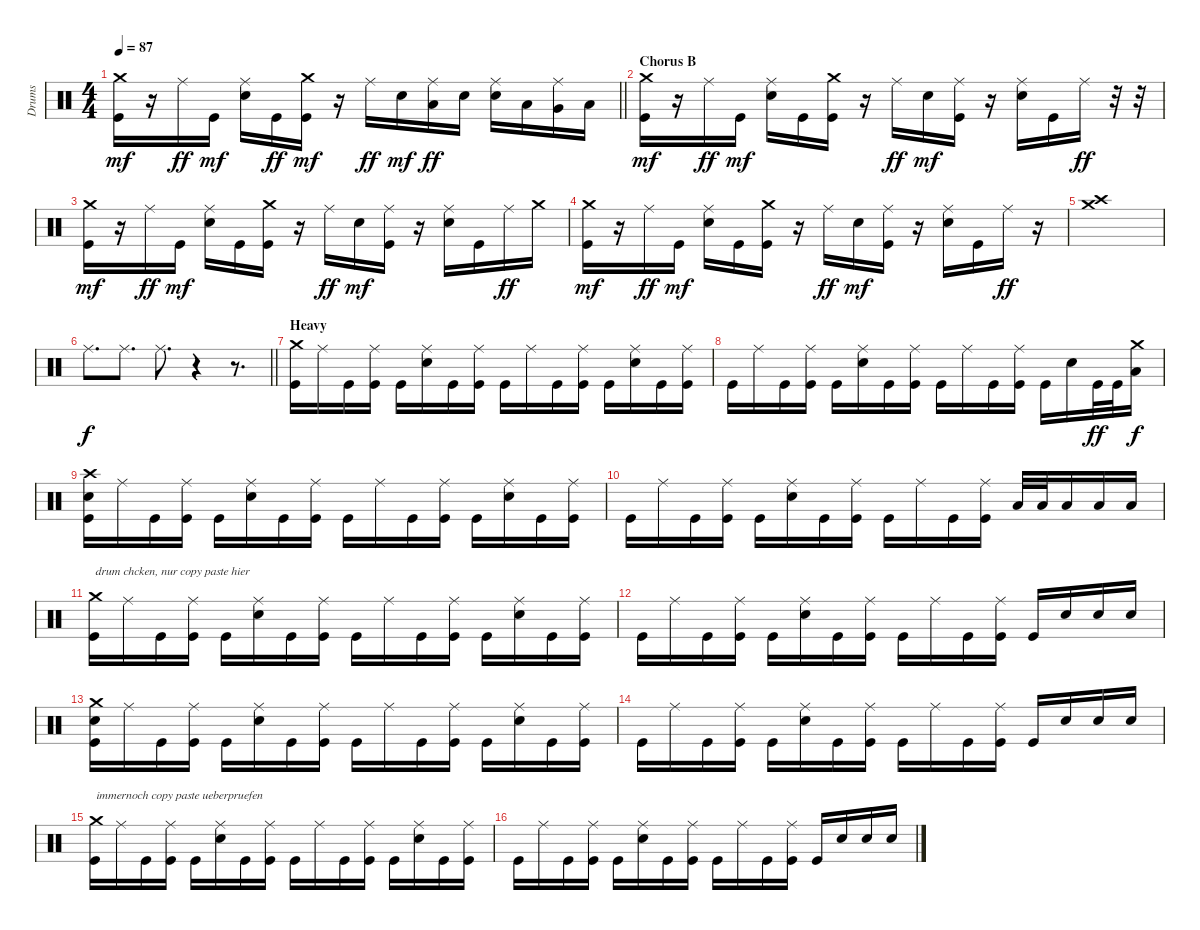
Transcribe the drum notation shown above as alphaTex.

\track ("Drums" "Drums") {instrument percussion}
\staff {score}
\articulation defaults
\ts (4 4)
\tempo 87
\clef neutral
\barLineRight lightlight
\ks c
("Crash medium (hit)" "Kick (hit)").16{dy mf} r.16 "Ride (middle)".16{dy ff} "Kick (hit)".16{dy mf} ("Ride (middle)" "Electric Snare (hit)").16 "Kick (hit)".16{dy ff} ("Crash medium (hit)" "Kick (hit)").16{dy mf} r.16 "Ride (middle)".16{dy ff} "Electric Snare (hit)".16{dy mf} ("Ride (middle)" "Low Tom (hit)").16{dy ff} "Electric Snare (hit)".16 ("Ride (middle)" "Electric Snare (hit)").16 "Low Tom (hit)".16 ("Ride (middle)" "Very Low Tom (hit)").16 "Low Floor Tom (hit)".16 |
\section ("" "Chorus B")
("Crash medium (hit)" "Kick (hit)").16{dy mf} r.16 "Ride (middle)".16{dy ff} "Kick (hit)".16{dy mf} ("Ride (middle)" "Electric Snare (hit)").16 "Kick (hit)".16 ("Crash medium (hit)" "Kick (hit)").16 r.16 "Ride (middle)".16{dy ff} "Electric Snare (hit)".16{dy mf} ("Ride (middle)" "Kick (hit)").16 r.16 ("Ride (middle)" "Electric Snare (hit)").16 "Kick (hit)".16 "Ride (middle)".16{dy ff} r.32 r.32 |
("Crash medium (hit)" "Kick (hit)").16{dy mf} r.16 "Ride (middle)".16{dy ff} "Kick (hit)".16{dy mf} ("Ride (middle)" "Electric Snare (hit)").16 "Kick (hit)".16 ("Crash medium (hit)" "Kick (hit)").16 r.16 "Ride (middle)".16{dy ff} "Electric Snare (hit)".16{dy mf} ("Ride (middle)" "Kick (hit)").16 r.16 ("Ride (middle)" "Electric Snare (hit)").16 "Kick (hit)".16 "Ride (middle)".16{dy ff} "Crash medium (hit)".16 |
("Crash medium (hit)" "Kick (hit)").16{dy mf} r.16 "Ride (middle)".16{dy ff} "Kick (hit)".16{dy mf} ("Ride (middle)" "Electric Snare (hit)").16 "Kick (hit)".16 ("Crash medium (hit)" "Kick (hit)").16 r.16 "Ride (middle)".16{dy ff} "Electric Snare (hit)".16{dy mf} ("Ride (middle)" "Kick (hit)").16 r.16 ("Ride (middle)" "Electric Snare (hit)").16 "Kick (hit)".16 "Ride (middle)".16{dy ff} r.16 |
("Crash high (hit)" "Crash medium (hit)").1 |
\barLineRight lightlight "Ride (middle)".8{d dy f} "Ride (middle)".8{d} "Ride (middle)".8{d}
r.4 r.8{d} |
\section ("" "Heavy")
("Crash medium (hit)" "Kick (hit)").16 "Ride (middle)".16 "Kick (hit)".16 ("Ride (middle)" "Kick (hit)").16 "Kick (hit)".16 ("Ride (middle)" "Electric Snare (hit)").16 "Kick (hit)".16 ("Ride (middle)" "Kick (hit)").16 "Kick (hit)".16 "Ride (middle)".16 "Kick (hit)".16 ("Ride (middle)" "Kick (hit)").16 "Kick (hit)".16 ("Ride (middle)" "Electric Snare (hit)").16 "Kick (hit)".16 ("Ride (middle)" "Kick (hit)").16 |
"Kick (hit)".16 "Ride (middle)".16 "Kick (hit)".16 ("Ride (middle)" "Kick (hit)").16 "Kick (hit)".16 ("Ride (middle)" "Electric Snare (hit)").16 "Kick (hit)".16 ("Ride (middle)" "Kick (hit)").16 "Kick (hit)".16 "Ride (middle)".16 "Kick (hit)".16 ("Ride (middle)" "Kick (hit)").16 "Kick (hit)".16 "Electric Snare (hit)".16 "Kick (hit)".32{dy ff} "Kick (hit)".32 ("Low Tom (hit)" "Crash medium (hit)").16{dy f} |
("Crash high (hit)" "Electric Snare (hit)" "Kick (hit)").16 "Ride (middle)".16 "Kick (hit)".16 ("Ride (middle)" "Kick (hit)").16 "Kick (hit)".16 ("Ride (middle)" "Electric Snare (hit)").16 "Kick (hit)".16 ("Ride (middle)" "Kick (hit)").16 "Kick (hit)".16 "Ride (middle)".16 "Kick (hit)".16 ("Ride (middle)" "Kick (hit)").16 "Kick (hit)".16 ("Ride (middle)" "Electric Snare (hit)").16 "Kick (hit)".16 ("Ride (middle)" "Kick (hit)").16 |
"Kick (hit)".16 "Ride (middle)".16 "Kick (hit)".16 ("Ride (middle)" "Kick (hit)").16 "Kick (hit)".16 ("Ride (middle)" "Electric Snare (hit)").16 "Kick (hit)".16 ("Ride (middle)" "Kick (hit)").16 "Kick (hit)".16 "Ride (middle)".16 "Kick (hit)".16 ("Ride (middle)" "Kick (hit)").16 "Low Tom (hit)".32 "Low Tom (hit)".32 "Low Tom (hit)".16 "Low Tom (hit)".16 "Low Tom (hit)".16 |
("Crash medium (hit)" "Kick (hit)").16{txt "drum chcken, nur copy paste hier"} "Ride (middle)".16 "Kick (hit)".16 ("Ride (middle)" "Kick (hit)").16 "Kick (hit)".16 ("Ride (middle)" "Electric Snare (hit)").16 "Kick (hit)".16 ("Ride (middle)" "Kick (hit)").16 "Kick (hit)".16 "Ride (middle)".16 "Kick (hit)".16 ("Ride (middle)" "Kick (hit)").16 "Kick (hit)".16 ("Ride (middle)" "Electric Snare (hit)").16 "Kick (hit)".16 ("Ride (middle)" "Kick (hit)").16 |
"Kick (hit)".16 "Ride (middle)".16 "Kick (hit)".16 ("Ride (middle)" "Kick (hit)").16 "Kick (hit)".16 ("Ride (middle)" "Electric Snare (hit)").16 "Kick (hit)".16 ("Ride (middle)" "Kick (hit)").16 "Kick (hit)".16 "Ride (middle)".16 "Kick (hit)".16 ("Ride (middle)" "Kick (hit)").16 "Kick (hit)".16 "Electric Snare (hit)".16 "Electric Snare (hit)".16 "Electric Snare (hit)".16 |
("Crash medium (hit)" "Electric Snare (hit)" "Kick (hit)").16 "Ride (middle)".16 "Kick (hit)".16 ("Ride (middle)" "Kick (hit)").16 "Kick (hit)".16 ("Ride (middle)" "Electric Snare (hit)").16 "Kick (hit)".16 ("Ride (middle)" "Kick (hit)").16 "Kick (hit)".16 "Ride (middle)".16 "Kick (hit)".16 ("Ride (middle)" "Kick (hit)").16 "Kick (hit)".16 ("Ride (middle)" "Electric Snare (hit)").16 "Kick (hit)".16 ("Ride (middle)" "Kick (hit)").16 |
"Kick (hit)".16 "Ride (middle)".16 "Kick (hit)".16 ("Ride (middle)" "Kick (hit)").16 "Kick (hit)".16 ("Ride (middle)" "Electric Snare (hit)").16 "Kick (hit)".16 ("Ride (middle)" "Kick (hit)").16 "Kick (hit)".16 "Ride (middle)".16 "Kick (hit)".16 ("Ride (middle)" "Kick (hit)").16 "Kick (hit)".16 "Electric Snare (hit)".16 "Electric Snare (hit)".16 "Electric Snare (hit)".16 |
("Crash medium (hit)" "Kick (hit)").16{txt "immernoch copy paste ueberpruefen"} "Ride (middle)".16 "Kick (hit)".16 ("Ride (middle)" "Kick (hit)").16 "Kick (hit)".16 ("Ride (middle)" "Electric Snare (hit)").16 "Kick (hit)".16 ("Ride (middle)" "Kick (hit)").16 "Kick (hit)".16 "Ride (middle)".16 "Kick (hit)".16 ("Ride (middle)" "Kick (hit)").16 "Kick (hit)".16 ("Ride (middle)" "Electric Snare (hit)").16 "Kick (hit)".16 ("Ride (middle)" "Kick (hit)").16 |
"Kick (hit)".16 "Ride (middle)".16 "Kick (hit)".16 ("Ride (middle)" "Kick (hit)").16 "Kick (hit)".16 ("Ride (middle)" "Electric Snare (hit)").16 "Kick (hit)".16 ("Ride (middle)" "Kick (hit)").16 "Kick (hit)".16 "Ride (middle)".16 "Kick (hit)".16 ("Ride (middle)" "Kick (hit)").16 "Kick (hit)".16 "Electric Snare (hit)".16 "Electric Snare (hit)".16 "Electric Snare (hit)".16
